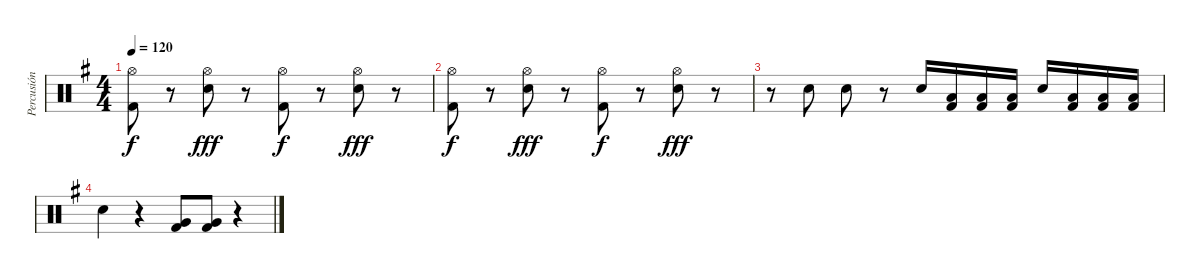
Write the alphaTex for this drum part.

\track ("Percusión" "Percusión") {instrument percussion}
\staff {score}
\articulation defaults
\ts (4 4)
\tempo 120
\clef neutral
\ks g
("Hi-Hat (open)" "Kick (hit) 2").8{dy f} r.8 ("Hi-Hat (open)" "Electric Snare (hit)").8{dy fff} r.8 ("Hi-Hat (open)" "Kick (hit) 2").8{dy f} r.8 ("Hi-Hat (open)" "Electric Snare (hit)").8{dy fff} r.8 |
("Hi-Hat (open)" "Kick (hit) 2").8{dy f} r.8 ("Hi-Hat (open)" "Electric Snare (hit)").8{dy fff} r.8 ("Hi-Hat (open)" "Kick (hit) 2").8{dy f} r.8 ("Hi-Hat (open)" "Electric Snare (hit)").8{dy fff} r.8 |
r.8 "Electric Snare (hit)".8 "Electric Snare (hit)".8 r.8 "Electric Snare (hit)".16 ("Low Floor Tom (hit)" "Kick (hit) 2").16 ("Low Floor Tom (hit)" "Kick (hit) 2").16 ("Low Floor Tom (hit)" "Kick (hit) 2").16 "Electric Snare (hit)".16 ("Low Floor Tom (hit)" "Kick (hit) 2").16 ("Low Floor Tom (hit)" "Kick (hit) 2").16 ("Low Floor Tom (hit)" "Kick (hit) 2").16 |
"Electric Snare (hit)".4 r.4 ("Very Low Tom (hit)" "Kick (hit) 2").8 ("Very Low Tom (hit)" "Kick (hit) 2").8 r.4
